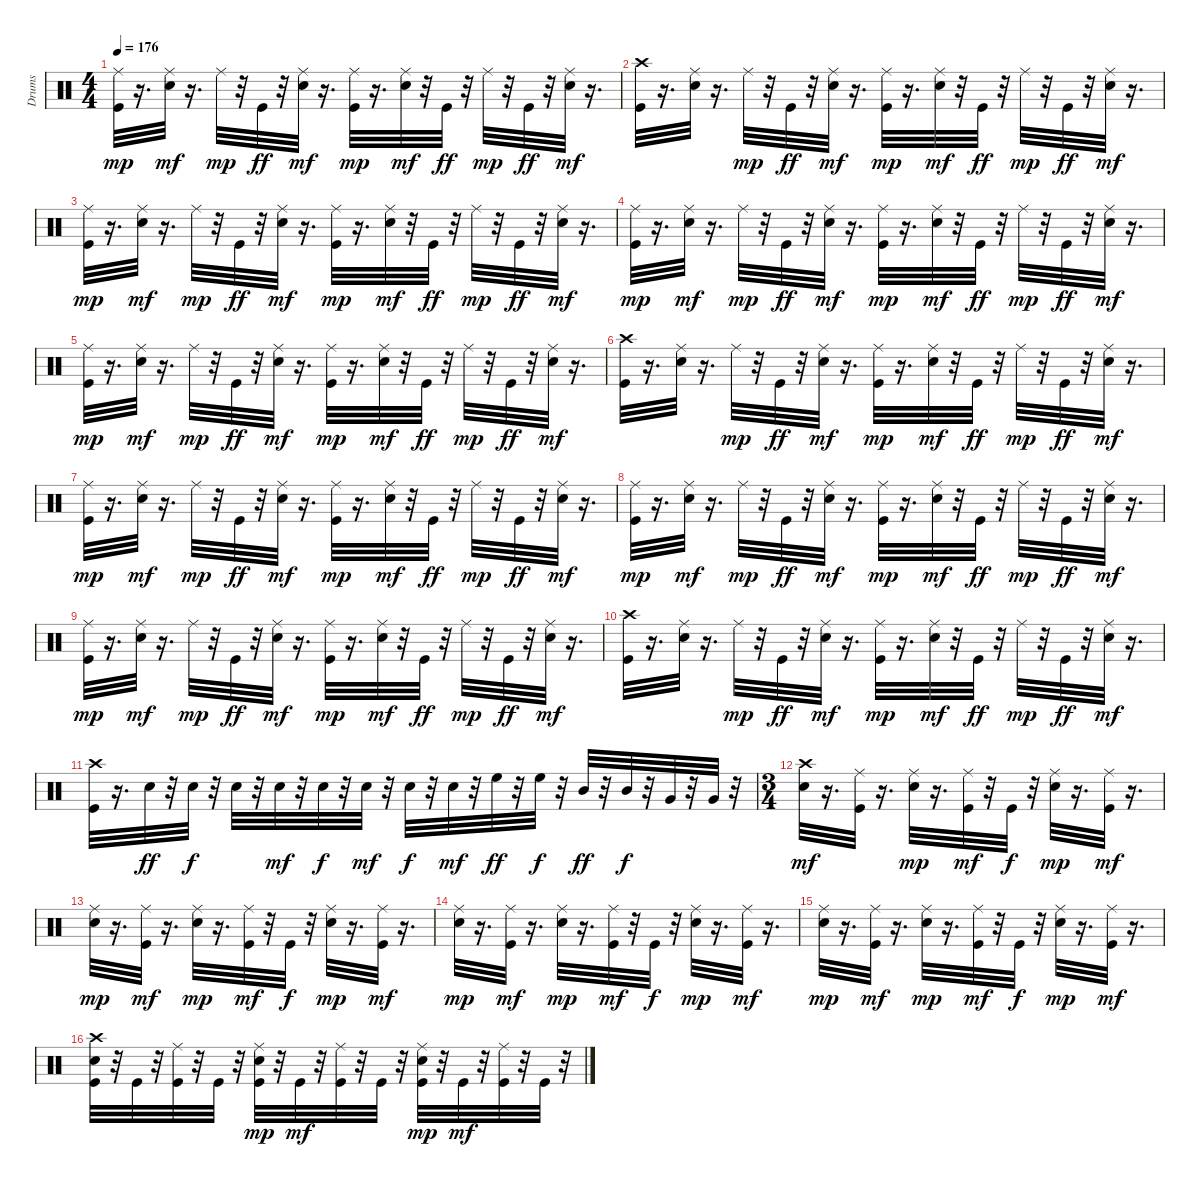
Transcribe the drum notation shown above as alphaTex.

\track ("Drums" "Drums") {instrument percussion}
\staff {score}
\articulation defaults
\ts (4 4)
\tempo 176
\clef neutral
\ks c
("Kick (hit)" "Ride (middle)").32{dy mp} r.16{d} ("Snare (hit) 2" "Ride (middle)").32{dy mf} r.16{d} "Ride (middle)".32{dy mp} r.32 "Kick (hit)".32{dy ff} r.32 ("Snare (hit) 2" "Ride (middle)").32{dy mf} r.16{d} ("Kick (hit)" "Ride (middle)").32{dy mp} r.16{d} ("Snare (hit) 2" "Ride (middle)").32{dy mf} r.32 "Kick (hit)".32{dy ff} r.32 "Ride (middle)".32{dy mp} r.32 "Kick (hit)".32{dy ff} r.32 ("Snare (hit) 2" "Ride (middle)").32{dy mf} r.16{d} |
("Kick (hit)" "Crash high (hit)").32 r.16{d} ("Snare (hit) 2" "Ride (middle)").32 r.16{d} "Ride (middle)".32{dy mp} r.32 "Kick (hit)".32{dy ff} r.32 ("Snare (hit) 2" "Ride (middle)").32{dy mf} r.16{d} ("Kick (hit)" "Ride (middle)").32{dy mp} r.16{d} ("Snare (hit) 2" "Ride (middle)").32{dy mf} r.32 "Kick (hit)".32{dy ff} r.32 "Ride (middle)".32{dy mp} r.32 "Kick (hit)".32{dy ff} r.32 ("Snare (hit) 2" "Ride (middle)").32{dy mf} r.16{d} |
("Kick (hit)" "Ride (middle)").32{dy mp} r.16{d} ("Snare (hit) 2" "Ride (middle)").32{dy mf} r.16{d} "Ride (middle)".32{dy mp} r.32 "Kick (hit)".32{dy ff} r.32 ("Snare (hit) 2" "Ride (middle)").32{dy mf} r.16{d} ("Kick (hit)" "Ride (middle)").32{dy mp} r.16{d} ("Snare (hit) 2" "Ride (middle)").32{dy mf} r.32 "Kick (hit)".32{dy ff} r.32 "Ride (middle)".32{dy mp} r.32 "Kick (hit)".32{dy ff} r.32 ("Snare (hit) 2" "Ride (middle)").32{dy mf} r.16{d} |
("Kick (hit)" "Ride (middle)").32{dy mp} r.16{d} ("Snare (hit) 2" "Ride (middle)").32{dy mf} r.16{d} "Ride (middle)".32{dy mp} r.32 "Kick (hit)".32{dy ff} r.32 ("Snare (hit) 2" "Ride (middle)").32{dy mf} r.16{d} ("Kick (hit)" "Ride (middle)").32{dy mp} r.16{d} ("Snare (hit) 2" "Ride (middle)").32{dy mf} r.32 "Kick (hit)".32{dy ff} r.32 "Ride (middle)".32{dy mp} r.32 "Kick (hit)".32{dy ff} r.32 ("Snare (hit) 2" "Ride (middle)").32{dy mf} r.16{d} |
("Kick (hit)" "Ride (middle)").32{dy mp} r.16{d} ("Snare (hit) 2" "Ride (middle)").32{dy mf} r.16{d} "Ride (middle)".32{dy mp} r.32 "Kick (hit)".32{dy ff} r.32 ("Snare (hit) 2" "Ride (middle)").32{dy mf} r.16{d} ("Kick (hit)" "Ride (middle)").32{dy mp} r.16{d} ("Snare (hit) 2" "Ride (middle)").32{dy mf} r.32 "Kick (hit)".32{dy ff} r.32 "Ride (middle)".32{dy mp} r.32 "Kick (hit)".32{dy ff} r.32 ("Snare (hit) 2" "Ride (middle)").32{dy mf} r.16{d} |
("Kick (hit)" "Crash high (hit)").32 r.16{d} ("Snare (hit) 2" "Ride (middle)").32 r.16{d} "Ride (middle)".32{dy mp} r.32 "Kick (hit)".32{dy ff} r.32 ("Snare (hit) 2" "Ride (middle)").32{dy mf} r.16{d} ("Kick (hit)" "Ride (middle)").32{dy mp} r.16{d} ("Snare (hit) 2" "Ride (middle)").32{dy mf} r.32 "Kick (hit)".32{dy ff} r.32 "Ride (middle)".32{dy mp} r.32 "Kick (hit)".32{dy ff} r.32 ("Snare (hit) 2" "Ride (middle)").32{dy mf} r.16{d} |
("Kick (hit)" "Ride (middle)").32{dy mp} r.16{d} ("Snare (hit) 2" "Ride (middle)").32{dy mf} r.16{d} "Ride (middle)".32{dy mp} r.32 "Kick (hit)".32{dy ff} r.32 ("Snare (hit) 2" "Ride (middle)").32{dy mf} r.16{d} ("Kick (hit)" "Ride (middle)").32{dy mp} r.16{d} ("Snare (hit) 2" "Ride (middle)").32{dy mf} r.32 "Kick (hit)".32{dy ff} r.32 "Ride (middle)".32{dy mp} r.32 "Kick (hit)".32{dy ff} r.32 ("Snare (hit) 2" "Ride (middle)").32{dy mf} r.16{d} |
("Kick (hit)" "Ride (middle)").32{dy mp} r.16{d} ("Snare (hit) 2" "Ride (middle)").32{dy mf} r.16{d} "Ride (middle)".32{dy mp} r.32 "Kick (hit)".32{dy ff} r.32 ("Snare (hit) 2" "Ride (middle)").32{dy mf} r.16{d} ("Kick (hit)" "Ride (middle)").32{dy mp} r.16{d} ("Snare (hit) 2" "Ride (middle)").32{dy mf} r.32 "Kick (hit)".32{dy ff} r.32 "Ride (middle)".32{dy mp} r.32 "Kick (hit)".32{dy ff} r.32 ("Snare (hit) 2" "Ride (middle)").32{dy mf} r.16{d} |
("Kick (hit)" "Ride (middle)").32{dy mp} r.16{d} ("Snare (hit) 2" "Ride (middle)").32{dy mf} r.16{d} "Ride (middle)".32{dy mp} r.32 "Kick (hit)".32{dy ff} r.32 ("Snare (hit) 2" "Ride (middle)").32{dy mf} r.16{d} ("Kick (hit)" "Ride (middle)").32{dy mp} r.16{d} ("Snare (hit) 2" "Ride (middle)").32{dy mf} r.32 "Kick (hit)".32{dy ff} r.32 "Ride (middle)".32{dy mp} r.32 "Kick (hit)".32{dy ff} r.32 ("Snare (hit) 2" "Ride (middle)").32{dy mf} r.16{d} |
("Kick (hit)" "Crash high (hit)").32 r.16{d} ("Snare (hit) 2" "Ride (middle)").32 r.16{d} "Ride (middle)".32{dy mp} r.32 "Kick (hit)".32{dy ff} r.32 ("Snare (hit) 2" "Ride (middle)").32{dy mf} r.16{d} ("Kick (hit)" "Ride (middle)").32{dy mp} r.16{d} ("Snare (hit) 2" "Ride (middle)").32{dy mf} r.32 "Kick (hit)".32{dy ff} r.32 "Ride (middle)".32{dy mp} r.32 "Kick (hit)".32{dy ff} r.32 ("Snare (hit) 2" "Ride (middle)").32{dy mf} r.16{d} |
("Kick (hit)" "Crash high (hit)").32 r.16{d} "Snare (hit) 2".32{dy ff} r.32 "Snare (hit) 2".32{dy f} r.32 "Snare (hit) 2".32 r.32 "Snare (hit) 2".32{dy mf} r.32 "Snare (hit) 2".32{dy f} r.32 "Snare (hit) 2".32{dy mf} r.32 "Snare (hit) 2".32{dy f} r.32 "Snare (hit) 2".32{dy mf} r.32 "High Floor Tom (hit)".32{dy ff} r.32 "High Floor Tom (hit)".32{dy f} r.32 "Mid Tom (hit)".32{dy ff} r.32 "Mid Tom (hit)".32{dy f} r.32 "Very Low Tom (hit)".32 r.32 "Very Low Tom (hit)".32 r.32 |
\ts (3 4)
("Snare (hit) 2" "Crash high (hit)").32{dy mf} r.16{d} ("Kick (hit)" "Ride (middle)").32 r.16{d} ("Snare (hit) 2" "Ride (middle)").32{dy mp} r.16{d} ("Kick (hit)" "Ride (middle)").32{dy mf} r.32 "Kick (hit)".32{dy f} r.32 ("Snare (hit) 2" "Ride (middle)").32{dy mp} r.16{d} ("Kick (hit)" "Ride (middle)").32{dy mf} r.16{d} |
("Snare (hit) 2" "Ride (middle)").32{dy mp} r.16{d} ("Kick (hit)" "Ride (middle)").32{dy mf} r.16{d} ("Snare (hit) 2" "Ride (middle)").32{dy mp} r.16{d} ("Kick (hit)" "Ride (middle)").32{dy mf} r.32 "Kick (hit)".32{dy f} r.32 ("Snare (hit) 2" "Ride (middle)").32{dy mp} r.16{d} ("Kick (hit)" "Ride (middle)").32{dy mf} r.16{d} |
("Snare (hit) 2" "Ride (middle)").32{dy mp} r.16{d} ("Kick (hit)" "Ride (middle)").32{dy mf} r.16{d} ("Snare (hit) 2" "Ride (middle)").32{dy mp} r.16{d} ("Kick (hit)" "Ride (middle)").32{dy mf} r.32 "Kick (hit)".32{dy f} r.32 ("Snare (hit) 2" "Ride (middle)").32{dy mp} r.16{d} ("Kick (hit)" "Ride (middle)").32{dy mf} r.16{d} |
("Snare (hit) 2" "Ride (middle)").32{dy mp} r.16{d} ("Kick (hit)" "Ride (middle)").32{dy mf} r.16{d} ("Snare (hit) 2" "Ride (middle)").32{dy mp} r.16{d} ("Kick (hit)" "Ride (middle)").32{dy mf} r.32 "Kick (hit)".32{dy f} r.32 ("Snare (hit) 2" "Ride (middle)").32{dy mp} r.16{d} ("Kick (hit)" "Ride (middle)").32{dy mf} r.16{d} |
("Kick (hit)" "Snare (hit) 2" "Crash high (hit)").32 r.32 "Kick (hit)".32 r.32 ("Kick (hit)" "Ride (middle)").32 r.32 "Kick (hit)".32 r.32 ("Kick (hit)" "Snare (hit) 2" "Ride (middle)").32{dy mp} r.32 "Kick (hit)".32{dy mf} r.32 ("Kick (hit)" "Ride (middle)").32 r.32 "Kick (hit)".32 r.32 ("Kick (hit)" "Snare (hit) 2" "Ride (middle)").32{dy mp} r.32 "Kick (hit)".32{dy mf} r.32 ("Kick (hit)" "Ride (middle)").32 r.32 "Kick (hit)".32 r.32
